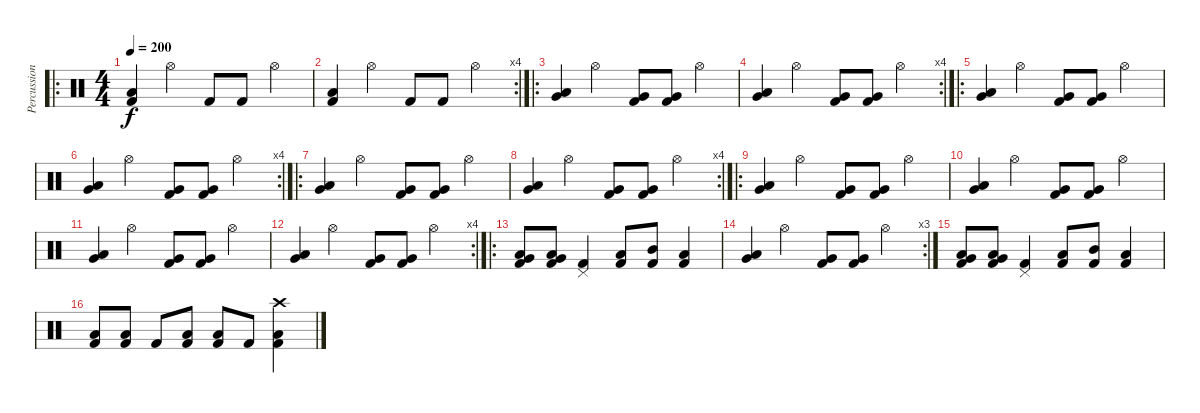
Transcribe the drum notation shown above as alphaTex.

\track ("Percussion" "Percussion") {instrument percussion}
\staff {score}
\articulation defaults
\ro
\ts (4 4)
\tempo 200
\clef neutral
\ks c
("Low Floor Tom (hit)" "Kick (hit) 2").4{dy f} "Hi-Hat (open)".4 "Kick (hit) 2".8 "Kick (hit) 2".8 "Hi-Hat (open)".4 |
\rc 4
("Low Floor Tom (hit)" "Kick (hit) 2").4 "Hi-Hat (open)".4 "Kick (hit) 2".8 "Kick (hit) 2".8 "Hi-Hat (open)".4 |
\ro
("Very Low Tom (hit)" "Low Floor Tom (hit)").4 "Hi-Hat (open)".4 ("Very Low Tom (hit)" "Kick (hit) 2").8 ("Very Low Tom (hit)" "Kick (hit) 2").8 "Hi-Hat (open)".4 |
\rc 4
("Very Low Tom (hit)" "Low Floor Tom (hit)").4 "Hi-Hat (open)".4 ("Very Low Tom (hit)" "Kick (hit) 2").8 ("Very Low Tom (hit)" "Kick (hit) 2").8 "Hi-Hat (open)".4 |
\ro
("Very Low Tom (hit)" "Low Floor Tom (hit)").4 "Hi-Hat (open)".4 ("Very Low Tom (hit)" "Kick (hit) 2").8 ("Very Low Tom (hit)" "Kick (hit) 2").8 "Hi-Hat (open)".4 |
\rc 4
("Very Low Tom (hit)" "Low Floor Tom (hit)").4 "Hi-Hat (open)".4 ("Very Low Tom (hit)" "Kick (hit) 2").8 ("Very Low Tom (hit)" "Kick (hit) 2").8 "Hi-Hat (open)".4 |
\ro
("Very Low Tom (hit)" "Low Floor Tom (hit)").4 "Hi-Hat (open)".4 ("Very Low Tom (hit)" "Kick (hit) 2").8 ("Very Low Tom (hit)" "Kick (hit) 2").8 "Hi-Hat (open)".4 |
\rc 4
("Very Low Tom (hit)" "Low Floor Tom (hit)").4 "Hi-Hat (open)".4 ("Very Low Tom (hit)" "Kick (hit) 2").8 ("Very Low Tom (hit)" "Kick (hit) 2").8 "Hi-Hat (open)".4 |
\ro
("Very Low Tom (hit)" "Low Floor Tom (hit)").4 "Hi-Hat (open)".4 ("Very Low Tom (hit)" "Kick (hit) 2").8 ("Very Low Tom (hit)" "Kick (hit) 2").8 "Hi-Hat (open)".4 |
("Very Low Tom (hit)" "Low Floor Tom (hit)").4 "Hi-Hat (open)".4 ("Very Low Tom (hit)" "Kick (hit) 2").8 ("Very Low Tom (hit)" "Kick (hit) 2").8 "Hi-Hat (open)".4 |
("Very Low Tom (hit)" "Low Floor Tom (hit)").4 "Hi-Hat (open)".4 ("Very Low Tom (hit)" "Kick (hit) 2").8 ("Very Low Tom (hit)" "Kick (hit) 2").8 "Hi-Hat (open)".4 |
\rc 4
("Very Low Tom (hit)" "Low Floor Tom (hit)").4 "Hi-Hat (open)".4 ("Very Low Tom (hit)" "Kick (hit) 2").8 ("Very Low Tom (hit)" "Kick (hit) 2").8 "Hi-Hat (open)".4 |
\ro
("Very Low Tom (hit)" "Low Floor Tom (hit)" "Kick (hit) 2").8 ("Very Low Tom (hit)" "Low Floor Tom (hit)" "Kick (hit) 2").8 ("Pedal Hi-Hat (hit)" "Kick (hit) 2").4 ("Low Tom (hit)" "Kick (hit) 2").8 ("Mid Tom (hit)" "Kick (hit) 2").8 ("Low Tom (hit)" "Kick (hit) 2").4 |
\rc 3
("Very Low Tom (hit)" "Low Floor Tom (hit)").4 "Hi-Hat (open)".4 ("Very Low Tom (hit)" "Kick (hit) 2").8 ("Very Low Tom (hit)" "Kick (hit) 2").8 "Hi-Hat (open)".4 |
("Very Low Tom (hit)" "Low Floor Tom (hit)" "Kick (hit) 2").8 ("Very Low Tom (hit)" "Low Floor Tom (hit)" "Kick (hit) 2").8 ("Pedal Hi-Hat (hit)" "Kick (hit) 2").4 ("Low Tom (hit)" "Kick (hit) 2").8 ("Mid Tom (hit)" "Kick (hit) 2").8 ("Low Tom (hit)" "Kick (hit) 2").4 |
("Low Floor Tom (hit)" "Kick (hit) 2").8 ("Low Floor Tom (hit)" "Kick (hit) 2").8 "Kick (hit) 2".8 ("Low Floor Tom (hit)" "Kick (hit) 2").8 ("Low Floor Tom (hit)" "Kick (hit) 2").8 "Kick (hit) 2".8 ("Crash high (hit)" "Low Floor Tom (hit)" "Kick (hit) 2").4
